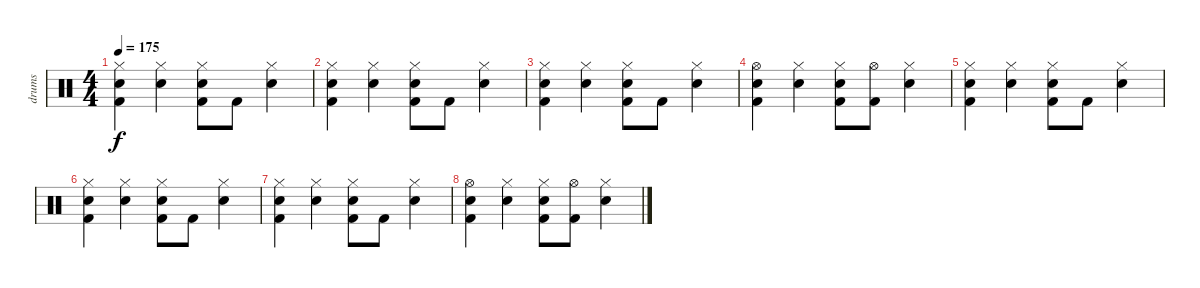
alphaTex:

\track ("drums" "drums") {instrument percussion}
\staff {score}
\articulation defaults
\ts (4 4)
\tempo 175
\clef neutral
\ks c
("Hi-Hat (closed)" "Snare (hit) 2" "Kick (hit) 2").4{dy f} ("Hi-Hat (closed)" "Snare (hit) 2").4 ("Hi-Hat (closed)" "Snare (hit) 2" "Kick (hit) 2").8 "Kick (hit) 2".8 ("Hi-Hat (closed)" "Snare (hit) 2").4 |
("Hi-Hat (closed)" "Snare (hit) 2" "Kick (hit) 2").4 ("Hi-Hat (closed)" "Snare (hit) 2").4 ("Hi-Hat (closed)" "Snare (hit) 2" "Kick (hit) 2").8 "Kick (hit) 2".8 ("Hi-Hat (closed)" "Snare (hit) 2").4 |
("Hi-Hat (closed)" "Snare (hit) 2" "Kick (hit) 2").4 ("Hi-Hat (closed)" "Snare (hit) 2").4 ("Hi-Hat (closed)" "Snare (hit) 2" "Kick (hit) 2").8 "Kick (hit) 2".8 ("Hi-Hat (closed)" "Snare (hit) 2").4 |
("Hi-Hat (open)" "Snare (hit) 2" "Kick (hit) 2").4 ("Hi-Hat (closed)" "Snare (hit) 2").4 ("Hi-Hat (closed)" "Snare (hit) 2" "Kick (hit) 2").8 ("Hi-Hat (open)" "Kick (hit) 2").8 ("Hi-Hat (closed)" "Snare (hit) 2").4 |
("Hi-Hat (closed)" "Snare (hit) 2" "Kick (hit) 2").4 ("Hi-Hat (closed)" "Snare (hit) 2").4 ("Hi-Hat (closed)" "Snare (hit) 2" "Kick (hit) 2").8 "Kick (hit) 2".8 ("Hi-Hat (closed)" "Snare (hit) 2").4 |
("Hi-Hat (closed)" "Snare (hit) 2" "Kick (hit) 2").4 ("Hi-Hat (closed)" "Snare (hit) 2").4 ("Hi-Hat (closed)" "Snare (hit) 2" "Kick (hit) 2").8 "Kick (hit) 2".8 ("Hi-Hat (closed)" "Snare (hit) 2").4 |
("Hi-Hat (closed)" "Snare (hit) 2" "Kick (hit) 2").4 ("Hi-Hat (closed)" "Snare (hit) 2").4 ("Hi-Hat (closed)" "Snare (hit) 2" "Kick (hit) 2").8 "Kick (hit) 2".8 ("Hi-Hat (closed)" "Snare (hit) 2").4 |
("Hi-Hat (open)" "Snare (hit) 2" "Kick (hit) 2").4 ("Hi-Hat (closed)" "Snare (hit) 2").4 ("Hi-Hat (closed)" "Snare (hit) 2" "Kick (hit) 2").8 ("Hi-Hat (open)" "Kick (hit) 2").8 ("Hi-Hat (closed)" "Snare (hit) 2").4
